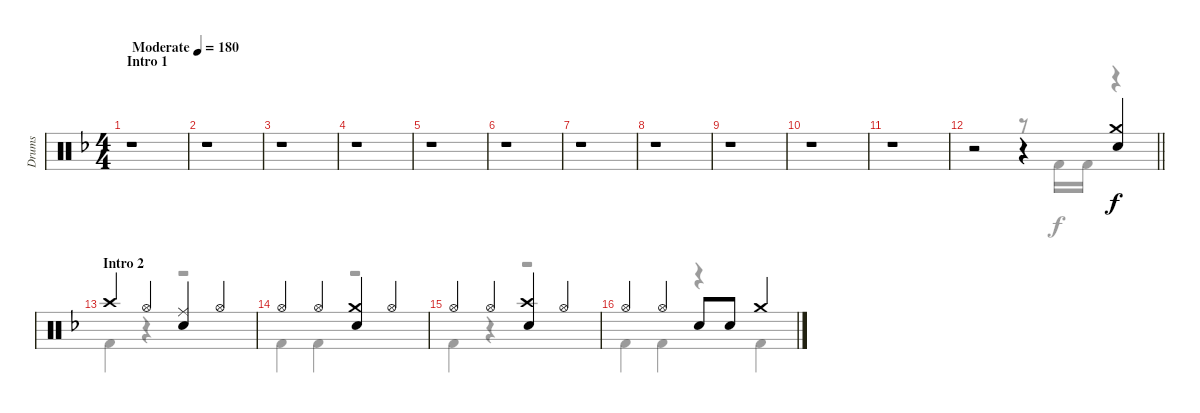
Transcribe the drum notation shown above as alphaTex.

\track ("Drums" "Drums") {instrument percussion}
\staff {score}
\articulation defaults
\voice
\ts (4 4)
\section ("" "Intro 1")
\tempo (180 "Moderate")
\clef neutral
\ks f
r.1{dy f} |
r.1 |
r.1 |
r.1 |
r.1 |
r.1 |
r.1 |
r.1 |
r.1 |
r.1 |
r.1 |
\barLineRight lightlight
r.2 r.4 ("Crash medium (hit)" "Snare (hit) 2").4 |
\section ("" "Intro 2")
"Crash high (hit)".4 "Hi-Hat (open)".4 ("Ride (middle)" "Snare (hit) 2").4 "Hi-Hat (open)".4 |
"Hi-Hat (open)".4 "Hi-Hat (open)".4 ("Crash medium (hit)" "Snare (hit) 2").4 "Hi-Hat (open)".4 |
"Hi-Hat (open)".4 "Hi-Hat (open)".4 ("Crash high (hit)" "Snare (hit) 2").4 "Hi-Hat (open)".4 |
"Hi-Hat (open)".4 "Hi-Hat (open)".4 "Snare (hit) 2".8 "Snare (hit) 2".8 "Crash medium (hit)".4
\voice
\clef neutral
\ottava regular
\simile none
\ks f
r.1{dy f} |
r.1 |
r.1 |
r.1 |
r.1 |
r.1 |
r.1 |
r.1 |
r.1 |
r.1 |
r.1 |
\barLineRight lightlight
r.2 r.8 "Kick (hit) 2".16 "Kick (hit) 2".16 r.4 |
"Kick (hit) 2".4 r.4 r.2 |
"Kick (hit) 2".4 "Kick (hit) 2".4 r.2 |
"Kick (hit) 2".4 r.4 r.2 |
"Kick (hit) 2".4 "Kick (hit) 2".4 r.4 "Kick (hit) 2".4
